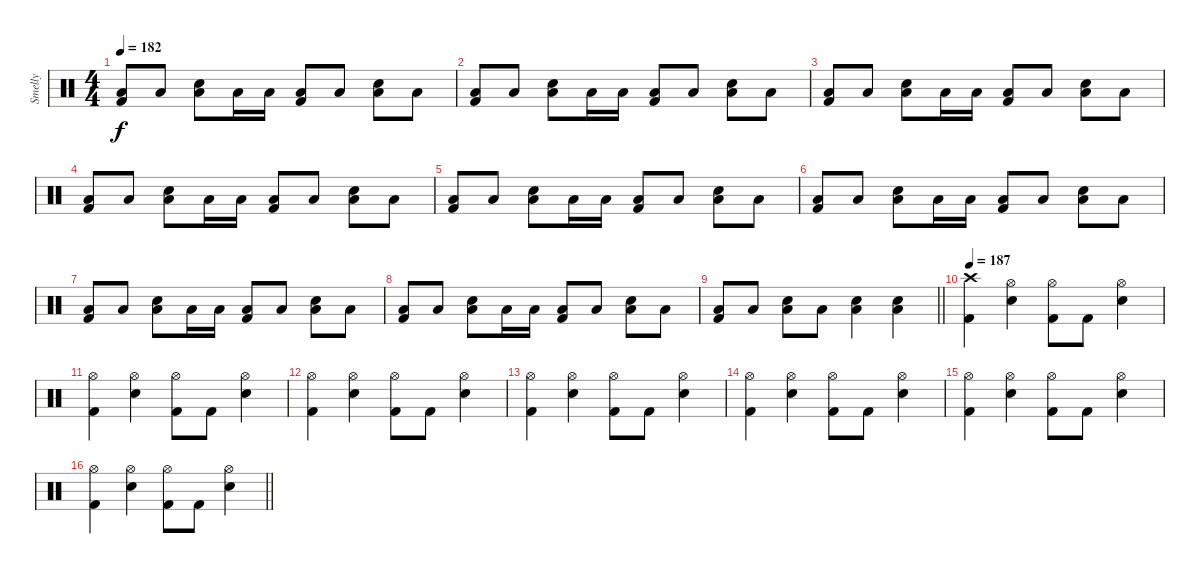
\track ("Smelly" "Smelly") {instrument percussion}
\staff {score}
\articulation defaults
\ts (4 4)
\tempo 182
\clef neutral
\ks c
("Low Floor Tom (hit)" "Kick (hit) 2").8{dy f} "Low Floor Tom (hit)".8 ("Electric Snare (hit)" "Low Floor Tom (hit)").8 "Low Floor Tom (hit)".16 "Low Tom (hit)".16 ("Low Floor Tom (hit)" "Kick (hit) 2").8 "Low Floor Tom (hit)".8 ("Electric Snare (hit)" "Low Floor Tom (hit)").8 "Low Floor Tom (hit)".8 |
("Low Floor Tom (hit)" "Kick (hit) 2").8 "Low Floor Tom (hit)".8 ("Electric Snare (hit)" "Low Floor Tom (hit)").8 "Low Floor Tom (hit)".16 "Low Tom (hit)".16 ("Low Floor Tom (hit)" "Kick (hit) 2").8 "Low Floor Tom (hit)".8 ("Electric Snare (hit)" "Low Floor Tom (hit)").8 "Low Floor Tom (hit)".8 |
("Low Floor Tom (hit)" "Kick (hit) 2").8 "Low Floor Tom (hit)".8 ("Electric Snare (hit)" "Low Floor Tom (hit)").8 "Low Floor Tom (hit)".16 "Low Tom (hit)".16 ("Low Floor Tom (hit)" "Kick (hit) 2").8 "Low Floor Tom (hit)".8 ("Electric Snare (hit)" "Low Floor Tom (hit)").8 "Low Floor Tom (hit)".8 |
("Low Floor Tom (hit)" "Kick (hit) 2").8 "Low Floor Tom (hit)".8 ("Electric Snare (hit)" "Low Floor Tom (hit)").8 "Low Floor Tom (hit)".16 "Low Tom (hit)".16 ("Low Floor Tom (hit)" "Kick (hit) 2").8 "Low Floor Tom (hit)".8 ("Electric Snare (hit)" "Low Floor Tom (hit)").8 "Low Floor Tom (hit)".8 |
("Low Floor Tom (hit)" "Kick (hit) 2").8 "Low Floor Tom (hit)".8 ("Electric Snare (hit)" "Low Floor Tom (hit)").8 "Low Floor Tom (hit)".16 "Low Tom (hit)".16 ("Low Floor Tom (hit)" "Kick (hit) 2").8 "Low Floor Tom (hit)".8 ("Electric Snare (hit)" "Low Floor Tom (hit)").8 "Low Floor Tom (hit)".8 |
("Low Floor Tom (hit)" "Kick (hit) 2").8 "Low Floor Tom (hit)".8 ("Electric Snare (hit)" "Low Floor Tom (hit)").8 "Low Floor Tom (hit)".16 "Low Tom (hit)".16 ("Low Floor Tom (hit)" "Kick (hit) 2").8 "Low Floor Tom (hit)".8 ("Electric Snare (hit)" "Low Floor Tom (hit)").8 "Low Floor Tom (hit)".8 |
("Low Floor Tom (hit)" "Kick (hit) 2").8 "Low Floor Tom (hit)".8 ("Electric Snare (hit)" "Low Floor Tom (hit)").8 "Low Floor Tom (hit)".16 "Low Tom (hit)".16 ("Low Floor Tom (hit)" "Kick (hit) 2").8 "Low Floor Tom (hit)".8 ("Electric Snare (hit)" "Low Floor Tom (hit)").8 "Low Floor Tom (hit)".8 |
("Low Floor Tom (hit)" "Kick (hit) 2").8 "Low Floor Tom (hit)".8 ("Electric Snare (hit)" "Low Floor Tom (hit)").8 "Low Floor Tom (hit)".16 "Low Tom (hit)".16 ("Low Floor Tom (hit)" "Kick (hit) 2").8 "Low Floor Tom (hit)".8 ("Electric Snare (hit)" "Low Floor Tom (hit)").8 "Low Floor Tom (hit)".8 |
\barLineRight lightlight
("Low Floor Tom (hit)" "Kick (hit) 2").8 "Low Floor Tom (hit)".8 ("Electric Snare (hit)" "Low Floor Tom (hit)").8 "Low Floor Tom (hit)".8 ("Electric Snare (hit)" "Low Floor Tom (hit)").4 ("Electric Snare (hit)" "Low Floor Tom (hit)").4 |
\section ("" "")
\tempo 187
("Crash high (hit)" "Kick (hit) 2").4 ("Hi-Hat (open)" "Electric Snare (hit)").4 ("Hi-Hat (open)" "Kick (hit) 2").8 "Kick (hit) 2".8 ("Hi-Hat (open)" "Electric Snare (hit)").4 |
("Hi-Hat (open)" "Kick (hit) 2").4 ("Hi-Hat (open)" "Electric Snare (hit)").4 ("Hi-Hat (open)" "Kick (hit) 2").8 "Kick (hit) 2".8 ("Hi-Hat (open)" "Electric Snare (hit)").4 |
("Hi-Hat (open)" "Kick (hit) 2").4 ("Hi-Hat (open)" "Electric Snare (hit)").4 ("Hi-Hat (open)" "Kick (hit) 2").8 "Kick (hit) 2".8 ("Hi-Hat (open)" "Electric Snare (hit)").4 |
("Hi-Hat (open)" "Kick (hit) 2").4 ("Hi-Hat (open)" "Electric Snare (hit)").4 ("Hi-Hat (open)" "Kick (hit) 2").8 "Kick (hit) 2".8 ("Hi-Hat (open)" "Electric Snare (hit)").4 |
("Hi-Hat (open)" "Kick (hit) 2").4 ("Hi-Hat (open)" "Electric Snare (hit)").4 ("Hi-Hat (open)" "Kick (hit) 2").8 "Kick (hit) 2".8 ("Hi-Hat (open)" "Electric Snare (hit)").4 |
("Hi-Hat (open)" "Kick (hit) 2").4 ("Hi-Hat (open)" "Electric Snare (hit)").4 ("Hi-Hat (open)" "Kick (hit) 2").8 "Kick (hit) 2".8 ("Hi-Hat (open)" "Electric Snare (hit)").4 |
\barLineRight lightlight
("Hi-Hat (open)" "Kick (hit) 2").4 ("Hi-Hat (open)" "Electric Snare (hit)").4 ("Hi-Hat (open)" "Kick (hit) 2").8 "Kick (hit) 2".8 ("Hi-Hat (open)" "Electric Snare (hit)").4
